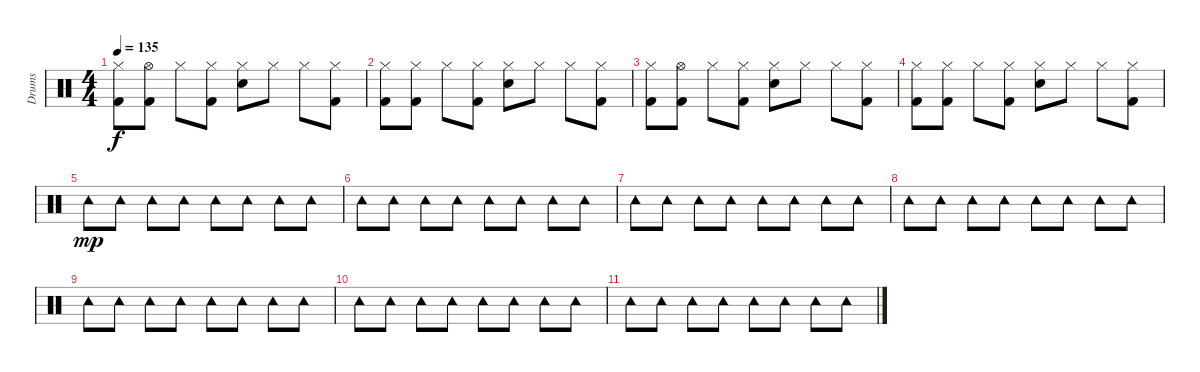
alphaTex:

\track ("Drums" "Drums") {instrument percussion}
\staff {score}
\articulation defaults
\ts (4 4)
\tempo 135
\clef neutral
\ks c
("Hi-Hat (closed)" "Kick (hit) 2").8{dy f} ("Hi-Hat (open)" "Kick (hit) 2").8 "Hi-Hat (closed)".8 ("Hi-Hat (closed)" "Kick (hit) 2").8 ("Hi-Hat (closed)" "Snare (hit) 2").8 "Hi-Hat (closed)".8 "Hi-Hat (closed)".8 ("Hi-Hat (closed)" "Kick (hit) 2").8 |
("Hi-Hat (closed)" "Kick (hit) 2").8 ("Hi-Hat (closed)" "Kick (hit) 2").8 "Hi-Hat (closed)".8 ("Hi-Hat (closed)" "Kick (hit) 2").8 ("Hi-Hat (closed)" "Snare (hit) 2").8 "Hi-Hat (closed)".8 "Hi-Hat (closed)".8 ("Hi-Hat (closed)" "Kick (hit) 2").8 |
("Hi-Hat (closed)" "Kick (hit) 2").8 ("Hi-Hat (open)" "Kick (hit) 2").8 "Hi-Hat (closed)".8 ("Hi-Hat (closed)" "Kick (hit) 2").8 ("Hi-Hat (closed)" "Snare (hit) 2").8 "Hi-Hat (closed)".8 "Hi-Hat (closed)".8 ("Hi-Hat (closed)" "Kick (hit) 2").8 |
("Hi-Hat (closed)" "Kick (hit) 2").8 ("Hi-Hat (closed)" "Kick (hit) 2").8 "Hi-Hat (closed)".8 ("Hi-Hat (closed)" "Kick (hit) 2").8 ("Hi-Hat (closed)" "Snare (hit) 2").8 "Hi-Hat (closed)".8 "Hi-Hat (closed)".8 ("Hi-Hat (closed)" "Kick (hit) 2").8 |
"Tambourine (hit)".8{dy mp} "Tambourine (hit)".8 "Tambourine (hit)".8 "Tambourine (hit)".8 "Tambourine (hit)".8 "Tambourine (hit)".8 "Tambourine (hit)".8 "Tambourine (hit)".8 |
"Tambourine (hit)".8 "Tambourine (hit)".8 "Tambourine (hit)".8 "Tambourine (hit)".8 "Tambourine (hit)".8 "Tambourine (hit)".8 "Tambourine (hit)".8 "Tambourine (hit)".8 |
"Tambourine (hit)".8 "Tambourine (hit)".8 "Tambourine (hit)".8 "Tambourine (hit)".8 "Tambourine (hit)".8 "Tambourine (hit)".8 "Tambourine (hit)".8 "Tambourine (hit)".8 |
"Tambourine (hit)".8 "Tambourine (hit)".8 "Tambourine (hit)".8 "Tambourine (hit)".8 "Tambourine (hit)".8 "Tambourine (hit)".8 "Tambourine (hit)".8 "Tambourine (hit)".8 |
"Tambourine (hit)".8{volume 0} "Tambourine (hit)".8 "Tambourine (hit)".8 "Tambourine (hit)".8 "Tambourine (hit)".8 "Tambourine (hit)".8 "Tambourine (hit)".8 "Tambourine (hit)".8 |
"Tambourine (hit)".8 "Tambourine (hit)".8 "Tambourine (hit)".8 "Tambourine (hit)".8 "Tambourine (hit)".8 "Tambourine (hit)".8 "Tambourine (hit)".8 "Tambourine (hit)".8 |
"Tambourine (hit)".8 "Tambourine (hit)".8 "Tambourine (hit)".8 "Tambourine (hit)".8 "Tambourine (hit)".8 "Tambourine (hit)".8 "Tambourine (hit)".8 "Tambourine (hit)".8
